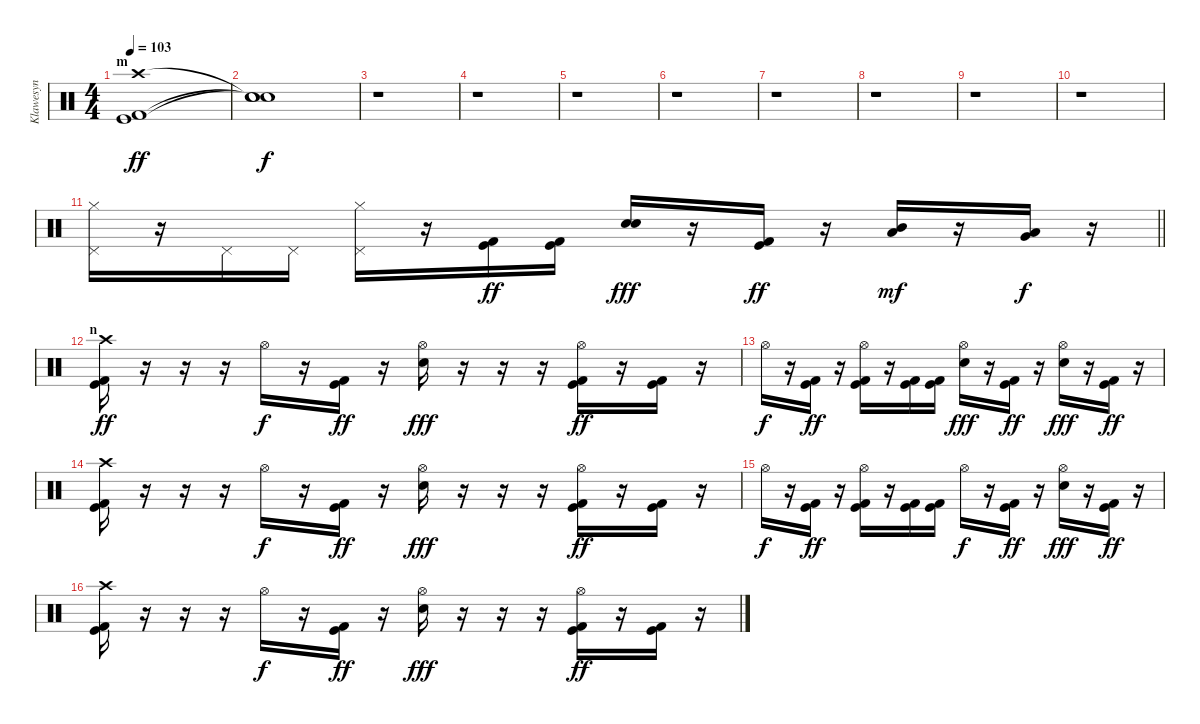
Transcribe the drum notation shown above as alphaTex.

\track ("Klawesyn" "Klawesyn") {instrument percussion}
\staff {score}
\articulation defaults
\ts (4 4)
\section ("" "m")
\tempo 103
\clef neutral
\ks c
("Crash high (hit)" "Kick (hit)" "Kick (hit) 2").1{dy ff} |
("Snare (hit)"{t} "Snare (hit)"{t} "Snare (hit)"{t}).1{dy f} |
r.1 |
r.1 |
r.1 |
r.1 |
r.1 |
r.1 |
r.1 |
r.1 |
\barLineRight lightlight
("Hi-Hat (closed)" "Pedal Hi-Hat (hit)").16 r.16 "Pedal Hi-Hat (hit)".16 "Pedal Hi-Hat (hit)".16 ("Hi-Hat (closed)" "Pedal Hi-Hat (hit)").16 r.16 ("Kick (hit)" "Kick (hit) 2").16{dy ff} ("Kick (hit)" "Kick (hit) 2").16 ("Snare (hit) 2" "Electric Snare (hit)").16{dy fff} r.16 ("Kick (hit)" "Kick (hit) 2").16{dy ff} r.16 ("Mid Tom (hit)" "Low Tom (hit)").16{dy mf} r.16 ("Low Tom (hit)" "Very Low Tom (hit)").16{dy f} r.16 |
\section ("" "n")
("Crash high (hit)" "Kick (hit)" "Kick (hit) 2").16{dy ff} r.16 r.16 r.16 "Hi-Hat (open)".16{dy f} r.16 ("Kick (hit)" "Kick (hit) 2").16{dy ff} r.16 ("Hi-Hat (open)" "Electric Snare (hit)").16{dy fff} r.16 r.16 r.16 ("Hi-Hat (open)" "Kick (hit)" "Kick (hit) 2").16{dy ff} r.16 ("Kick (hit)" "Kick (hit) 2").16 r.16 |
"Hi-Hat (open)".16{dy f} r.16 ("Kick (hit)" "Kick (hit) 2").16{dy ff} r.16 ("Hi-Hat (open)" "Kick (hit)" "Kick (hit) 2").16 r.16 ("Kick (hit)" "Kick (hit) 2").16 ("Kick (hit)" "Kick (hit) 2").16 ("Hi-Hat (open)" "Electric Snare (hit)").16{dy fff} r.16 ("Kick (hit)" "Kick (hit) 2").16{dy ff} r.16 ("Hi-Hat (open)" "Electric Snare (hit)").16{dy fff} r.16 ("Kick (hit)" "Kick (hit) 2").16{dy ff} r.16 |
("Crash high (hit)" "Kick (hit)" "Kick (hit) 2").16 r.16 r.16 r.16 "Hi-Hat (open)".16{dy f} r.16 ("Kick (hit)" "Kick (hit) 2").16{dy ff} r.16 ("Hi-Hat (open)" "Electric Snare (hit)").16{dy fff} r.16 r.16 r.16 ("Hi-Hat (open)" "Kick (hit)" "Kick (hit) 2").16{dy ff} r.16 ("Kick (hit)" "Kick (hit) 2").16 r.16 |
"Hi-Hat (open)".16{dy f} r.16 ("Kick (hit)" "Kick (hit) 2").16{dy ff} r.16 ("Hi-Hat (open)" "Kick (hit)" "Kick (hit) 2").16 r.16 ("Kick (hit)" "Kick (hit) 2").16 ("Kick (hit)" "Kick (hit) 2").16 "Hi-Hat (open)".16{dy f} r.16 ("Kick (hit)" "Kick (hit) 2").16{dy ff} r.16 ("Hi-Hat (open)" "Electric Snare (hit)").16{dy fff} r.16 ("Kick (hit)" "Kick (hit) 2").16{dy ff} r.16 |
("Crash high (hit)" "Kick (hit)" "Kick (hit) 2").16 r.16 r.16 r.16 "Hi-Hat (open)".16{dy f} r.16 ("Kick (hit)" "Kick (hit) 2").16{dy ff} r.16 ("Hi-Hat (open)" "Electric Snare (hit)").16{dy fff} r.16 r.16 r.16 ("Hi-Hat (open)" "Kick (hit)" "Kick (hit) 2").16{dy ff} r.16 ("Kick (hit)" "Kick (hit) 2").16 r.16
